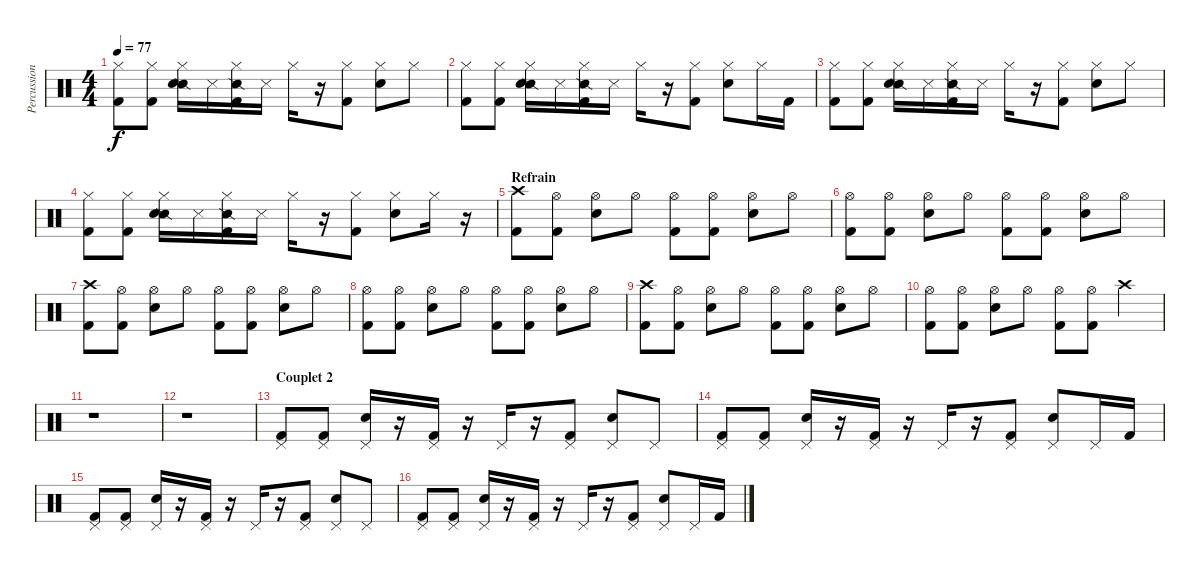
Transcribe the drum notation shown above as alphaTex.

\track ("Percussions" "Percussion") {instrument percussion}
\staff {score}
\articulation defaults
\ts (4 4)
\tempo 77
\clef neutral
\ks c
("Hi-Hat (closed)" "Kick (hit) 2").8{dy f} ("Hi-Hat (closed)" "Kick (hit) 2").8 ("Hi-Hat (closed)" "Snare (side stick) 2" "Electric Snare (hit)").16 "Metronome (hit)".16 ("Hi-Hat (closed)" "Snare (side stick) 2" "Kick (hit) 2").16 "Metronome (hit)".16 "Hi-Hat (closed)".16 r.16 ("Hi-Hat (closed)" "Kick (hit) 2").8 ("Hi-Hat (closed)" "Electric Snare (hit)").8 "Hi-Hat (closed)".8 |
("Hi-Hat (closed)" "Kick (hit) 2").8 ("Hi-Hat (closed)" "Kick (hit) 2").8 ("Hi-Hat (closed)" "Snare (side stick) 2" "Electric Snare (hit)").16 "Metronome (hit)".16 ("Hi-Hat (closed)" "Snare (side stick) 2" "Kick (hit) 2").16 "Metronome (hit)".16 "Hi-Hat (closed)".16 r.16 ("Hi-Hat (closed)" "Kick (hit) 2").8 ("Hi-Hat (closed)" "Electric Snare (hit)").8 "Hi-Hat (closed)".16 "Kick (hit) 2".16 |
("Hi-Hat (closed)" "Kick (hit) 2").8 ("Hi-Hat (closed)" "Kick (hit) 2").8 ("Hi-Hat (closed)" "Snare (side stick) 2" "Electric Snare (hit)").16 "Metronome (hit)".16 ("Hi-Hat (closed)" "Snare (side stick) 2" "Kick (hit) 2").16 "Metronome (hit)".16 "Hi-Hat (closed)".16 r.16 ("Hi-Hat (closed)" "Kick (hit) 2").8 ("Hi-Hat (closed)" "Electric Snare (hit)").8 "Hi-Hat (closed)".8 |
("Hi-Hat (closed)" "Kick (hit) 2").8 ("Hi-Hat (closed)" "Kick (hit) 2").8 ("Hi-Hat (closed)" "Snare (side stick) 2" "Electric Snare (hit)").16 "Metronome (hit)".16 ("Hi-Hat (closed)" "Snare (side stick) 2" "Kick (hit) 2").16 "Metronome (hit)".16 "Hi-Hat (closed)".16 r.16 ("Hi-Hat (closed)" "Kick (hit) 2").8 ("Hi-Hat (closed)" "Electric Snare (hit)").8 "Hi-Hat (closed)".16 r.16 |
\section ("" "Refrain")
("Crash high (hit)" "Kick (hit) 2").8 ("Hi-Hat (open)" "Kick (hit) 2").8 ("Hi-Hat (open)" "Electric Snare (hit)").8 "Hi-Hat (open)".8 ("Hi-Hat (open)" "Kick (hit) 2").8 ("Hi-Hat (open)" "Kick (hit) 2").8 ("Hi-Hat (open)" "Electric Snare (hit)").8 "Hi-Hat (open)".8 |
("Hi-Hat (open)" "Kick (hit) 2").8 ("Hi-Hat (open)" "Kick (hit) 2").8 ("Hi-Hat (open)" "Electric Snare (hit)").8 "Hi-Hat (open)".8 ("Hi-Hat (open)" "Kick (hit) 2").8 ("Hi-Hat (open)" "Kick (hit) 2").8 ("Hi-Hat (open)" "Electric Snare (hit)").8 "Hi-Hat (open)".8 |
("Crash high (hit)" "Kick (hit) 2").8 ("Hi-Hat (open)" "Kick (hit) 2").8 ("Hi-Hat (open)" "Electric Snare (hit)").8 "Hi-Hat (open)".8 ("Hi-Hat (open)" "Kick (hit) 2").8 ("Hi-Hat (open)" "Kick (hit) 2").8 ("Hi-Hat (open)" "Electric Snare (hit)").8 "Hi-Hat (open)".8 |
("Hi-Hat (open)" "Kick (hit) 2").8 ("Hi-Hat (open)" "Kick (hit) 2").8 ("Hi-Hat (open)" "Electric Snare (hit)").8 "Hi-Hat (open)".8 ("Hi-Hat (open)" "Kick (hit) 2").8 ("Hi-Hat (open)" "Kick (hit) 2").8 ("Hi-Hat (open)" "Electric Snare (hit)").8 "Hi-Hat (open)".8 |
("Crash high (hit)" "Kick (hit) 2").8 ("Hi-Hat (open)" "Kick (hit) 2").8 ("Hi-Hat (open)" "Electric Snare (hit)").8 "Hi-Hat (open)".8 ("Hi-Hat (open)" "Kick (hit) 2").8 ("Hi-Hat (open)" "Kick (hit) 2").8 ("Hi-Hat (open)" "Electric Snare (hit)").8 "Hi-Hat (open)".8 |
("Hi-Hat (open)" "Kick (hit) 2").8 ("Hi-Hat (open)" "Kick (hit) 2").8 ("Hi-Hat (open)" "Electric Snare (hit)").8 "Hi-Hat (open)".8 ("Hi-Hat (open)" "Kick (hit) 2").8 ("Hi-Hat (open)" "Kick (hit) 2").8 "Crash high (hit)".4 |
r.1 |
r.1 |
\section ("" "Couplet 2")
("Pedal Hi-Hat (hit)" "Kick (hit) 2").8 ("Pedal Hi-Hat (hit)" "Kick (hit) 2").8 ("Pedal Hi-Hat (hit)" "Electric Snare (hit)").16 r.16 ("Pedal Hi-Hat (hit)" "Kick (hit) 2").16 r.16 "Pedal Hi-Hat (hit)".16 r.16 ("Pedal Hi-Hat (hit)" "Kick (hit) 2").8 ("Pedal Hi-Hat (hit)" "Electric Snare (hit)").8 "Pedal Hi-Hat (hit)".8 |
("Pedal Hi-Hat (hit)" "Kick (hit) 2").8 ("Pedal Hi-Hat (hit)" "Kick (hit) 2").8 ("Pedal Hi-Hat (hit)" "Electric Snare (hit)").16 r.16 ("Pedal Hi-Hat (hit)" "Kick (hit) 2").16 r.16 "Pedal Hi-Hat (hit)".16 r.16 ("Pedal Hi-Hat (hit)" "Kick (hit) 2").8 ("Pedal Hi-Hat (hit)" "Electric Snare (hit)").8 "Pedal Hi-Hat (hit)".16 "Kick (hit) 2".16 |
("Pedal Hi-Hat (hit)" "Kick (hit) 2").8 ("Pedal Hi-Hat (hit)" "Kick (hit) 2").8 ("Pedal Hi-Hat (hit)" "Electric Snare (hit)").16 r.16 ("Pedal Hi-Hat (hit)" "Kick (hit) 2").16 r.16 "Pedal Hi-Hat (hit)".16 r.16 ("Pedal Hi-Hat (hit)" "Kick (hit) 2").8 ("Pedal Hi-Hat (hit)" "Electric Snare (hit)").8 "Pedal Hi-Hat (hit)".8 |
("Pedal Hi-Hat (hit)" "Kick (hit) 2").8 ("Pedal Hi-Hat (hit)" "Kick (hit) 2").8 ("Pedal Hi-Hat (hit)" "Electric Snare (hit)").16 r.16 ("Pedal Hi-Hat (hit)" "Kick (hit) 2").16 r.16 "Pedal Hi-Hat (hit)".16 r.16 ("Pedal Hi-Hat (hit)" "Kick (hit) 2").8 ("Pedal Hi-Hat (hit)" "Electric Snare (hit)").8 "Pedal Hi-Hat (hit)".16 "Kick (hit) 2".16
